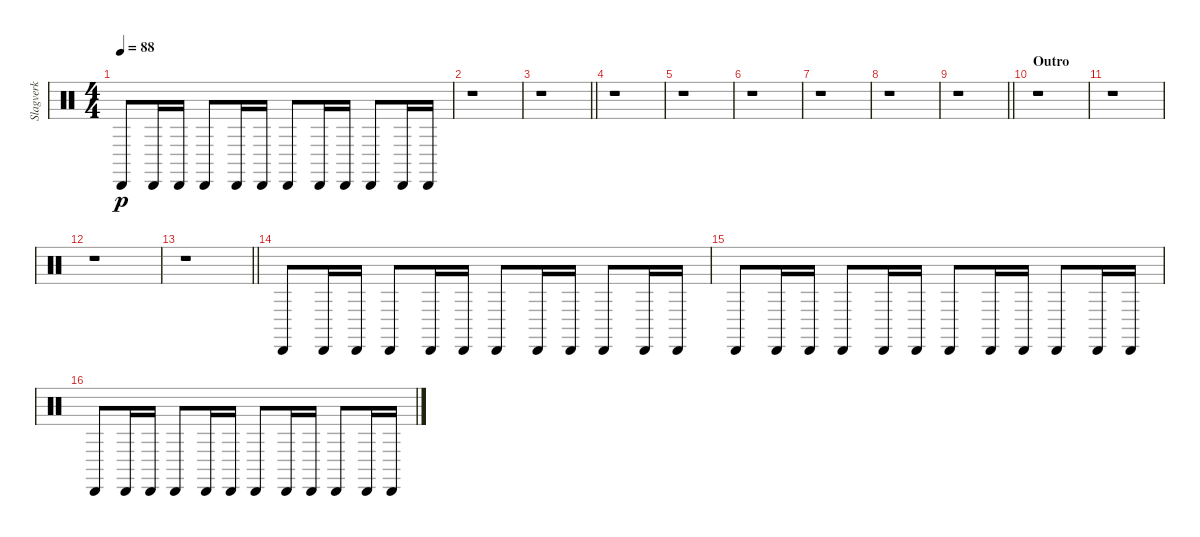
\track ("Slagverk" "Slagverk") {instrument percussion}
\staff {score}
\articulation defaults
\ts (4 4)
\tempo 88
\clef neutral
\ks c "Cabasa (hit)".8{dy p} "Cabasa (hit)".16 "Cabasa (hit)".16 "Cabasa (hit)".8 "Cabasa (hit)".16 "Cabasa (hit)".16 "Cabasa (hit)".8 "Cabasa (hit)".16 "Cabasa (hit)".16 "Cabasa (hit)".8 "Cabasa (hit)".16 "Cabasa (hit)".16
|
r.1 |
\barLineRight lightlight
r.1 |
r.1 |
r.1 |
r.1 |
r.1 |
r.1 |
\barLineRight lightlight
r.1 |
\section ("" "Outro")
r.1 |
r.1 |
r.1 |
\barLineRight lightlight
r.1 |
"Cabasa (hit)".8 "Cabasa (hit)".16 "Cabasa (hit)".16 "Cabasa (hit)".8 "Cabasa (hit)".16 "Cabasa (hit)".16 "Cabasa (hit)".8 "Cabasa (hit)".16 "Cabasa (hit)".16 "Cabasa (hit)".8 "Cabasa (hit)".16 "Cabasa (hit)".16 |
"Cabasa (hit)".8 "Cabasa (hit)".16 "Cabasa (hit)".16 "Cabasa (hit)".8 "Cabasa (hit)".16 "Cabasa (hit)".16 "Cabasa (hit)".8 "Cabasa (hit)".16 "Cabasa (hit)".16 "Cabasa (hit)".8 "Cabasa (hit)".16 "Cabasa (hit)".16 |
"Cabasa (hit)".8 "Cabasa (hit)".16 "Cabasa (hit)".16 "Cabasa (hit)".8 "Cabasa (hit)".16 "Cabasa (hit)".16 "Cabasa (hit)".8 "Cabasa (hit)".16 "Cabasa (hit)".16 "Cabasa (hit)".8 "Cabasa (hit)".16 "Cabasa (hit)".16
